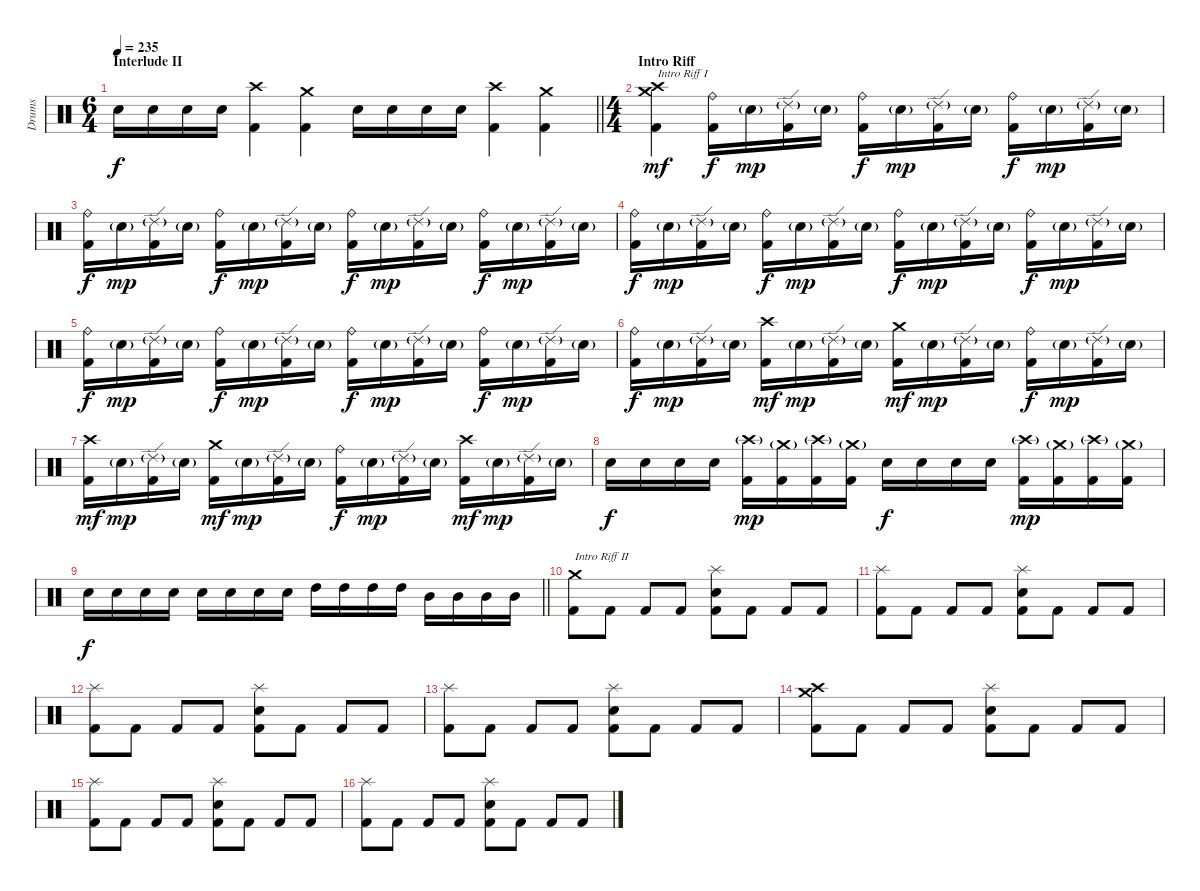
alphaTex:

\track ("Drums" "Drums") {instrument percussion}
\staff {score}
\articulation defaults
\ts (6 4)
\section ("" "Interlude II")
\tempo 235
\clef neutral
\barLineRight lightlight
\ks c "Electric Snare (hit)".16{dy f} "Electric Snare (hit)".16 "Electric Snare (hit)".16 "Electric Snare (hit)".16
("Crash high (hit)" "Kick (hit) 2").4 ("Crash medium (hit)" "Kick (hit) 2").4 "Electric Snare (hit)".16 "Electric Snare (hit)".16 "Electric Snare (hit)".16 "Electric Snare (hit)".16 ("Crash high (hit)" "Kick (hit) 2").4 ("Crash medium (hit)" "Kick (hit) 2").4 |
\ts (4 4)
\section ("" "Intro Riff")
("Crash medium (hit)" "Crash high (hit)" "Kick (hit) 2").4{txt "Intro Riff I" dy mf} ("Ride (bell)" "Kick (hit) 2").16{dy f} "Electric Snare (hit)"{g}.16{dy mp} ("Ride (edge) 2"{g} "Kick (hit) 2").16 "Electric Snare (hit)"{g}.16 ("Ride (bell)" "Kick (hit) 2").16{dy f} "Electric Snare (hit)"{g}.16{dy mp} ("Ride (edge) 2"{g} "Kick (hit) 2").16 "Electric Snare (hit)"{g}.16 ("Ride (bell)" "Kick (hit) 2").16{dy f} "Electric Snare (hit)"{g}.16{dy mp} ("Ride (edge) 2"{g} "Kick (hit) 2").16 "Electric Snare (hit)"{g}.16 |
("Ride (bell)" "Kick (hit) 2").16{dy f} "Electric Snare (hit)"{g}.16{dy mp} ("Ride (edge) 2"{g} "Kick (hit) 2").16 "Electric Snare (hit)"{g}.16 ("Ride (bell)" "Kick (hit) 2").16{dy f} "Electric Snare (hit)"{g}.16{dy mp} ("Ride (edge) 2"{g} "Kick (hit) 2").16 "Electric Snare (hit)"{g}.16 ("Ride (bell)" "Kick (hit) 2").16{dy f} "Electric Snare (hit)"{g}.16{dy mp} ("Ride (edge) 2"{g} "Kick (hit) 2").16 "Electric Snare (hit)"{g}.16 ("Ride (bell)" "Kick (hit) 2").16{dy f} "Electric Snare (hit)"{g}.16{dy mp} ("Ride (edge) 2"{g} "Kick (hit) 2").16 "Electric Snare (hit)"{g}.16 |
("Ride (bell)" "Kick (hit) 2").16{dy f} "Electric Snare (hit)"{g}.16{dy mp} ("Ride (edge) 2"{g} "Kick (hit) 2").16 "Electric Snare (hit)"{g}.16 ("Ride (bell)" "Kick (hit) 2").16{dy f} "Electric Snare (hit)"{g}.16{dy mp} ("Ride (edge) 2"{g} "Kick (hit) 2").16 "Electric Snare (hit)"{g}.16 ("Ride (bell)" "Kick (hit) 2").16{dy f} "Electric Snare (hit)"{g}.16{dy mp} ("Ride (edge) 2"{g} "Kick (hit) 2").16 "Electric Snare (hit)"{g}.16 ("Ride (bell)" "Kick (hit) 2").16{dy f} "Electric Snare (hit)"{g}.16{dy mp} ("Ride (edge) 2"{g} "Kick (hit) 2").16 "Electric Snare (hit)"{g}.16 |
("Ride (bell)" "Kick (hit) 2").16{dy f} "Electric Snare (hit)"{g}.16{dy mp} ("Ride (edge) 2"{g} "Kick (hit) 2").16 "Electric Snare (hit)"{g}.16 ("Ride (bell)" "Kick (hit) 2").16{dy f} "Electric Snare (hit)"{g}.16{dy mp} ("Ride (edge) 2"{g} "Kick (hit) 2").16 "Electric Snare (hit)"{g}.16 ("Ride (bell)" "Kick (hit) 2").16{dy f} "Electric Snare (hit)"{g}.16{dy mp} ("Ride (edge) 2"{g} "Kick (hit) 2").16 "Electric Snare (hit)"{g}.16 ("Ride (bell)" "Kick (hit) 2").16{dy f} "Electric Snare (hit)"{g}.16{dy mp} ("Ride (edge) 2"{g} "Kick (hit) 2").16 "Electric Snare (hit)"{g}.16 |
("Ride (bell)" "Kick (hit) 2").16{dy f} "Electric Snare (hit)"{g}.16{dy mp} ("Ride (edge) 2"{g} "Kick (hit) 2").16 "Electric Snare (hit)"{g}.16 ("Crash high (hit)" "Kick (hit) 2").16{dy mf} "Electric Snare (hit)"{g}.16{dy mp} ("Ride (edge) 2"{g} "Kick (hit) 2").16 "Electric Snare (hit)"{g}.16 ("Crash medium (hit)" "Kick (hit) 2").16{dy mf} "Electric Snare (hit)"{g}.16{dy mp} ("Ride (edge) 2"{g} "Kick (hit) 2").16 "Electric Snare (hit)"{g}.16 ("Ride (bell)" "Kick (hit) 2").16{dy f} "Electric Snare (hit)"{g}.16{dy mp} ("Ride (edge) 2"{g} "Kick (hit) 2").16 "Electric Snare (hit)"{g}.16 |
("Crash high (hit)" "Kick (hit) 2").16{dy mf} "Electric Snare (hit)"{g}.16{dy mp} ("Ride (edge) 2"{g} "Kick (hit) 2").16 "Electric Snare (hit)"{g}.16 ("Crash medium (hit)" "Kick (hit) 2").16{dy mf} "Electric Snare (hit)"{g}.16{dy mp} ("Ride (edge) 2"{g} "Kick (hit) 2").16 "Electric Snare (hit)"{g}.16 ("Ride (bell)" "Kick (hit) 2").16{dy f} "Electric Snare (hit)"{g}.16{dy mp} ("Ride (edge) 2"{g} "Kick (hit) 2").16 "Electric Snare (hit)"{g}.16 ("Crash high (hit)" "Kick (hit) 2").16{dy mf} "Electric Snare (hit)"{g}.16{dy mp} ("Ride (edge) 2"{g} "Kick (hit) 2").16 "Electric Snare (hit)"{g}.16 |
"Electric Snare (hit)".16{dy f} "Electric Snare (hit)".16 "Electric Snare (hit)".16 "Electric Snare (hit)".16 ("Crash high (hit)"{g} "Kick (hit) 2").16{dy mp} ("Crash medium (hit)"{g} "Kick (hit) 2").16 ("Crash high (hit)"{g} "Kick (hit) 2").16 ("Crash medium (hit)"{g} "Kick (hit) 2").16 "Electric Snare (hit)".16{dy f} "Electric Snare (hit)".16 "Electric Snare (hit)".16 "Electric Snare (hit)".16 ("Crash high (hit)"{g} "Kick (hit) 2").16{dy mp} ("Crash medium (hit)"{g} "Kick (hit) 2").16 ("Crash high (hit)"{g} "Kick (hit) 2").16 ("Crash medium (hit)"{g} "Kick (hit) 2").16 |
\barLineRight lightlight "Electric Snare (hit)".16{dy f} "Electric Snare (hit)".16 "Electric Snare (hit)".16 "Electric Snare (hit)".16 "Electric Snare (hit)".16 "Electric Snare (hit)".16 "Electric Snare (hit)".16 "Electric Snare (hit)".16 "High Tom (hit)".16 "High Tom (hit)".16 "High Tom (hit)".16 "High Tom (hit)".16 "Mid Tom (hit)".16 "Mid Tom (hit)".16 "Mid Tom (hit)".16 "Mid Tom (hit)".16
|
("Crash medium (hit)" "Kick (hit) 2").8{txt "Intro Riff II"} "Kick (hit) 2".8 "Kick (hit) 2".8 "Kick (hit) 2".8 ("Splash (hit)" "Electric Snare (hit)" "Kick (hit) 2").8 "Kick (hit) 2".8 "Kick (hit) 2".8 "Kick (hit) 2".8 |
("Splash (hit)" "Kick (hit) 2").8 "Kick (hit) 2".8 "Kick (hit) 2".8 "Kick (hit) 2".8 ("Splash (hit)" "Electric Snare (hit)" "Kick (hit) 2").8 "Kick (hit) 2".8 "Kick (hit) 2".8 "Kick (hit) 2".8 |
("Splash (hit)" "Kick (hit) 2").8 "Kick (hit) 2".8 "Kick (hit) 2".8 "Kick (hit) 2".8 ("Splash (hit)" "Electric Snare (hit)" "Kick (hit) 2").8 "Kick (hit) 2".8 "Kick (hit) 2".8 "Kick (hit) 2".8 |
("Splash (hit)" "Kick (hit) 2").8 "Kick (hit) 2".8 "Kick (hit) 2".8 "Kick (hit) 2".8 ("Splash (hit)" "Electric Snare (hit)" "Kick (hit) 2").8 "Kick (hit) 2".8 "Kick (hit) 2".8 "Kick (hit) 2".8 |
("Crash medium (hit)" "Crash high (hit)" "Kick (hit) 2").8 "Kick (hit) 2".8 "Kick (hit) 2".8 "Kick (hit) 2".8 ("Splash (hit)" "Electric Snare (hit)" "Kick (hit) 2").8 "Kick (hit) 2".8 "Kick (hit) 2".8 "Kick (hit) 2".8 |
("Splash (hit)" "Kick (hit) 2").8 "Kick (hit) 2".8 "Kick (hit) 2".8 "Kick (hit) 2".8 ("Splash (hit)" "Electric Snare (hit)" "Kick (hit) 2").8 "Kick (hit) 2".8 "Kick (hit) 2".8 "Kick (hit) 2".8 |
("Splash (hit)" "Kick (hit) 2").8 "Kick (hit) 2".8 "Kick (hit) 2".8 "Kick (hit) 2".8 ("Splash (hit)" "Electric Snare (hit)" "Kick (hit) 2").8 "Kick (hit) 2".8 "Kick (hit) 2".8 "Kick (hit) 2".8
